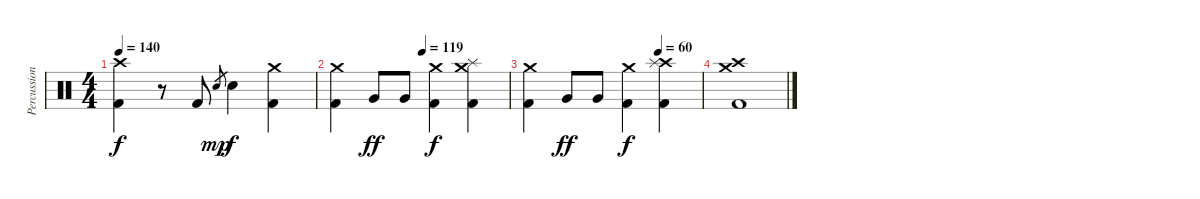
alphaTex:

\track ("Percussion" "Percussion") {instrument percussion}
\staff {score}
\articulation defaults
\ts (4 4)
\tempo 140
\clef neutral
\ks c
("Crash high (hit)" "Kick (hit) 2").4{dy f} r.8 "Kick (hit) 2".8 "Electric Snare (hit)".8{gr dy mp} "Electric Snare (hit)".4{dy f} ("Crash medium (hit)" "Kick (hit) 2").4 |
\tempo (119 0.5)
("Crash medium (hit)" "Kick (hit) 2").4 "Very Low Tom (hit)".8{dy ff} "Very Low Tom (hit)".8 ("Crash medium (hit)" "Kick (hit) 2").4{dy f} ("Crash medium (hit)" "Splash (hit)" "Kick (hit) 2").4 |
\tempo (60 0.75)
("Crash medium (hit)" "Kick (hit) 2").4 "Very Low Tom (hit)".8{dy ff} "Very Low Tom (hit)".8 ("Crash medium (hit)" "Kick (hit) 2").4{dy f} ("Crash high (hit)" "Splash (hit)" "Kick (hit) 2").4 |
("Crash high (hit)" "Crash medium (hit)" "Kick (hit) 2").1
